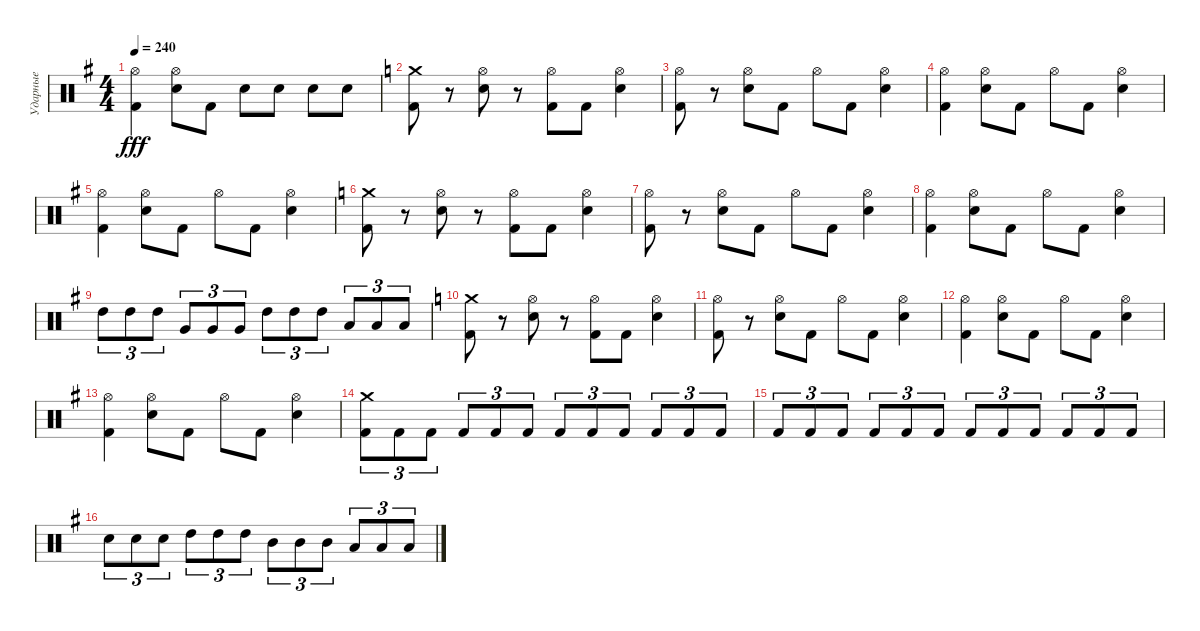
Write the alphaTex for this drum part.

\track ("Ударные" "Ударные") {instrument percussion}
\staff {score}
\articulation defaults
\ts (4 4)
\tempo 240
\clef neutral
\ks eminor
("Hi-Hat (open)" "Kick (hit) 2").4{dy fff} ("Hi-Hat (open)" "Electric Snare (hit)").8 "Kick (hit) 2".8 "Electric Snare (hit)".8 "Electric Snare (hit)".8 "Electric Snare (hit)".8 "Electric Snare (hit)".8 |
\ks c
("Crash medium (hit)" "Kick (hit) 2").8 r.8 ("Hi-Hat (open)" "Electric Snare (hit)").8 r.8 ("Hi-Hat (open)" "Kick (hit) 2").8 "Kick (hit) 2".8 ("Hi-Hat (open)" "Electric Snare (hit)").4 |
("Hi-Hat (open)" "Kick (hit) 2").8 r.8 ("Hi-Hat (open)" "Electric Snare (hit)").8 "Kick (hit) 2".8 "Hi-Hat (open)".8 "Kick (hit) 2".8 ("Hi-Hat (open)" "Electric Snare (hit)").4 |
("Hi-Hat (open)" "Kick (hit) 2").4 ("Hi-Hat (open)" "Electric Snare (hit)").8 "Kick (hit) 2".8 "Hi-Hat (open)".8 "Kick (hit) 2".8 ("Hi-Hat (open)" "Electric Snare (hit)").4 |
\ks eminor
("Hi-Hat (open)" "Kick (hit) 2").4 ("Hi-Hat (open)" "Electric Snare (hit)").8 "Kick (hit) 2".8 "Hi-Hat (open)".8 "Kick (hit) 2".8 ("Hi-Hat (open)" "Electric Snare (hit)").4 |
\ks c
("Crash medium (hit)" "Kick (hit) 2").8 r.8 ("Hi-Hat (open)" "Electric Snare (hit)").8 r.8 ("Hi-Hat (open)" "Kick (hit) 2").8 "Kick (hit) 2".8 ("Hi-Hat (open)" "Electric Snare (hit)").4 |
("Hi-Hat (open)" "Kick (hit) 2").8 r.8 ("Hi-Hat (open)" "Electric Snare (hit)").8 "Kick (hit) 2".8 "Hi-Hat (open)".8 "Kick (hit) 2".8 ("Hi-Hat (open)" "Electric Snare (hit)").4 |
("Hi-Hat (open)" "Kick (hit) 2").4 ("Hi-Hat (open)" "Electric Snare (hit)").8 "Kick (hit) 2".8 "Hi-Hat (open)".8 "Kick (hit) 2".8 ("Hi-Hat (open)" "Electric Snare (hit)").4 |
\ks eminor "High Tom (hit)".8{tu (3 2)} "High Tom (hit)".8{tu (3 2)} "High Tom (hit)".8{tu (3 2)} "Very Low Tom (hit)".8{tu (3 2)} "Very Low Tom (hit)".8{tu (3 2)} "Very Low Tom (hit)".8{tu (3 2)} "High Tom (hit)".8{tu (3 2)} "High Tom (hit)".8{tu (3 2)} "High Tom (hit)".8{tu (3 2)} "Low Floor Tom (hit)".8{tu (3 2)} "Low Floor Tom (hit)".8{tu (3 2)} "Low Floor Tom (hit)".8{tu (3 2)}
|
\ks c
("Crash medium (hit)" "Kick (hit) 2").8 r.8 ("Hi-Hat (open)" "Electric Snare (hit)").8 r.8 ("Hi-Hat (open)" "Kick (hit) 2").8 "Kick (hit) 2".8 ("Hi-Hat (open)" "Electric Snare (hit)").4 |
("Hi-Hat (open)" "Kick (hit) 2").8 r.8 ("Hi-Hat (open)" "Electric Snare (hit)").8 "Kick (hit) 2".8 "Hi-Hat (open)".8 "Kick (hit) 2".8 ("Hi-Hat (open)" "Electric Snare (hit)").4 |
("Hi-Hat (open)" "Kick (hit) 2").4 ("Hi-Hat (open)" "Electric Snare (hit)").8 "Kick (hit) 2".8 "Hi-Hat (open)".8 "Kick (hit) 2".8 ("Hi-Hat (open)" "Electric Snare (hit)").4 |
\ks eminor
("Hi-Hat (open)" "Kick (hit) 2").4 ("Hi-Hat (open)" "Electric Snare (hit)").8 "Kick (hit) 2".8 "Hi-Hat (open)".8 "Kick (hit) 2".8 ("Hi-Hat (open)" "Electric Snare (hit)").4 |
("Crash medium (hit)" "Kick (hit) 2").8{tu (3 2)} "Kick (hit) 2".8{tu (3 2)} "Kick (hit) 2".8{tu (3 2)} "Kick (hit) 2".8{tu (3 2)} "Kick (hit) 2".8{tu (3 2)} "Kick (hit) 2".8{tu (3 2)} "Kick (hit) 2".8{tu (3 2)} "Kick (hit) 2".8{tu (3 2)} "Kick (hit) 2".8{tu (3 2)} "Kick (hit) 2".8{tu (3 2)} "Kick (hit) 2".8{tu (3 2)} "Kick (hit) 2".8{tu (3 2)} |
"Kick (hit) 2".8{tu (3 2)} "Kick (hit) 2".8{tu (3 2)} "Kick (hit) 2".8{tu (3 2)} "Kick (hit) 2".8{tu (3 2)} "Kick (hit) 2".8{tu (3 2)} "Kick (hit) 2".8{tu (3 2)} "Kick (hit) 2".8{tu (3 2)} "Kick (hit) 2".8{tu (3 2)} "Kick (hit) 2".8{tu (3 2)} "Kick (hit) 2".8{tu (3 2)} "Kick (hit) 2".8{tu (3 2)} "Kick (hit) 2".8{tu (3 2)} |
"Electric Snare (hit)".8{tu (3 2)} "Electric Snare (hit)".8{tu (3 2)} "Electric Snare (hit)".8{tu (3 2)} "High Tom (hit)".8{tu (3 2)} "High Tom (hit)".8{tu (3 2)} "High Tom (hit)".8{tu (3 2)} "Mid Tom (hit)".8{tu (3 2)} "Mid Tom (hit)".8{tu (3 2)} "Mid Tom (hit)".8{tu (3 2)} "Low Tom (hit)".8{tu (3 2)} "Low Tom (hit)".8{tu (3 2)} "Low Tom (hit)".8{tu (3 2)}
